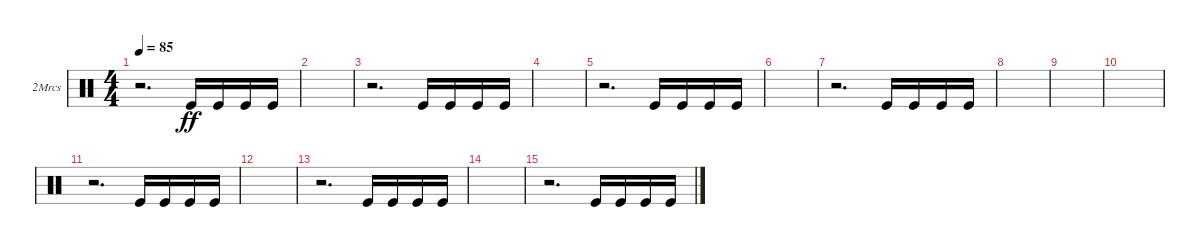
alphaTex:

\defaultSystemsLayout 4
\bracketExtendMode groupsimilarinstruments
\firstSystemTrackNameOrientation horizontal
\otherSystemsTrackNameOrientation horizontal
\track ("2 Hands Maracas" "2Mrcs") {instrument percussion}
\staff {score}
\articulation defaults
\ts (4 4)
\tempo 85
\clef neutral
\scale
0.333333
\ks c
r.2{d dy ff} "Kick (hit)".16 "Kick (hit)".16 "Kick (hit)".16 "Kick (hit)".16 |
\scale
0.333333 |
\scale
0.333333 r.2{d} "Kick (hit)".16 "Kick (hit)".16 "Kick (hit)".16 "Kick (hit)".16 |
\scale
0.333333 |
\scale
0.333333 r.2{d} "Kick (hit)".16 "Kick (hit)".16 "Kick (hit)".16 "Kick (hit)".16 |
\scale
0.333333 |
\scale
0.333333 r.2{d} "Kick (hit)".16 "Kick (hit)".16 "Kick (hit)".16 "Kick (hit)".16 |
\scale
0.333333 |
\scale
0.333333 |
\scale
0.333333 |
r.2{d} "Kick (hit)".16 "Kick (hit)".16 "Kick (hit)".16 "Kick (hit)".16 |
|
r.2{d} "Kick (hit)".16 "Kick (hit)".16 "Kick (hit)".16 "Kick (hit)".16 |
|
r.2{d} "Kick (hit)".16 "Kick (hit)".16 "Kick (hit)".16 "Kick (hit)".16
